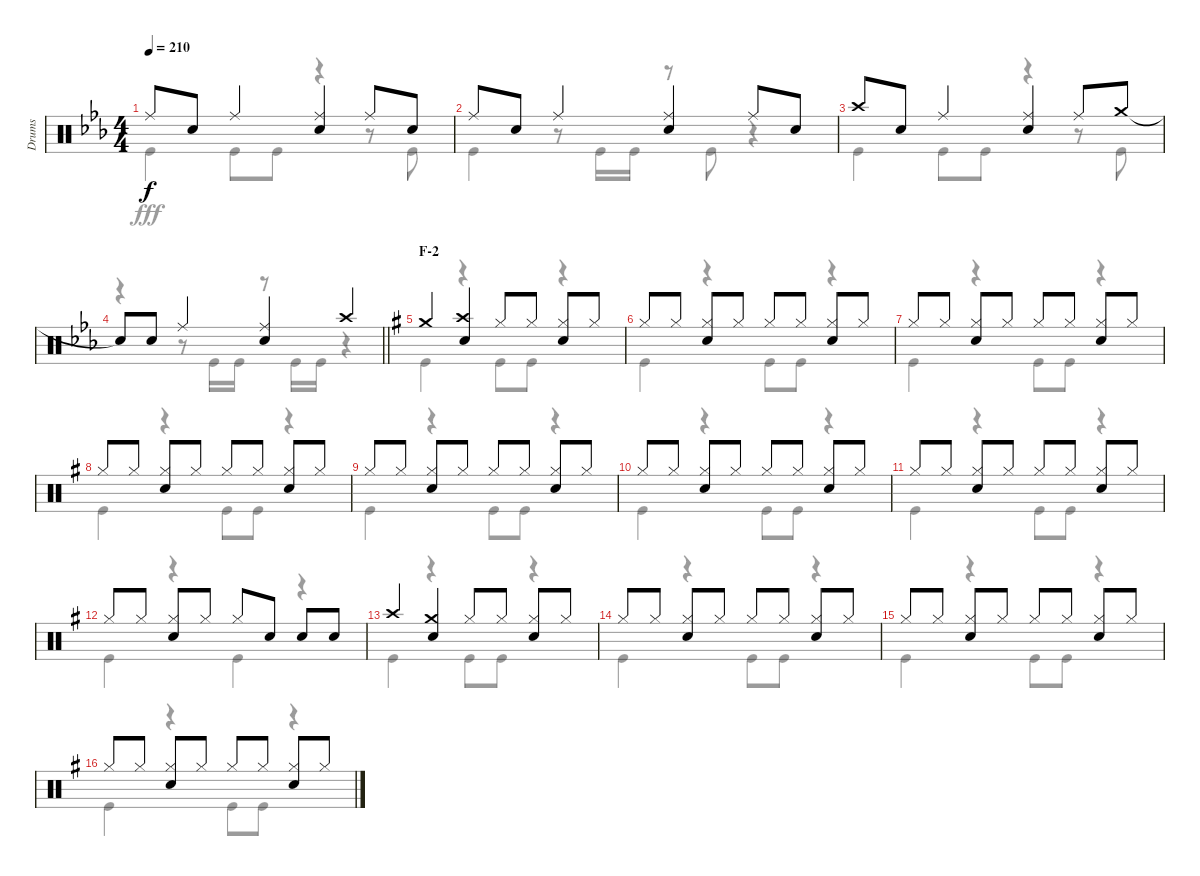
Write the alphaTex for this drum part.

\track ("Drums" "Drums") {instrument percussion}
\staff {score}
\articulation defaults
\voice
\ts (4 4)
\tempo 210
\clef neutral
\ks eb "Ride (middle)".8{dy f} "Snare (hit) 2".8 "Ride (middle)".4
("Ride (middle)" "Snare (hit) 2").4 "Ride (middle)".8 "Snare (hit) 2".8 |
"Ride (middle)".8 "Snare (hit) 2".8 "Ride (middle)".4 ("Ride (middle)" "Snare (hit) 2").4 "Ride (middle)".8 "Snare (hit) 2".8 |
"Crash high (hit)".8 "Snare (hit) 2".8 "Ride (middle)".4 ("Ride (middle)" "Snare (hit) 2").4 "Ride (middle)".8 "Crash medium (hit)".8 |
\barLineRight lightlight "Snare (hit)"{t}.8 "Snare (hit) 2".8 "Ride (middle)".4
("Ride (middle)" "Snare (hit) 2").4 "Crash high (hit)".4 |
\section ("" "F-2")
\ks g "Crash medium (hit)".4
("Crash high (hit)" "Snare (hit) 2").4 "Hi-Hat (closed)".8 "Hi-Hat (closed)".8 ("Hi-Hat (closed)" "Snare (hit) 2").8 "Hi-Hat (closed)".8 |
"Hi-Hat (closed)".8 "Hi-Hat (closed)".8 ("Hi-Hat (closed)" "Snare (hit) 2").8 "Hi-Hat (closed)".8 "Hi-Hat (closed)".8 "Hi-Hat (closed)".8 ("Hi-Hat (closed)" "Snare (hit) 2").8 "Hi-Hat (closed)".8 |
"Hi-Hat (closed)".8 "Hi-Hat (closed)".8 ("Hi-Hat (closed)" "Snare (hit) 2").8 "Hi-Hat (closed)".8 "Hi-Hat (closed)".8 "Hi-Hat (closed)".8 ("Hi-Hat (closed)" "Snare (hit) 2").8 "Hi-Hat (closed)".8 |
"Hi-Hat (closed)".8 "Hi-Hat (closed)".8 ("Hi-Hat (closed)" "Snare (hit) 2").8 "Hi-Hat (closed)".8 "Hi-Hat (closed)".8 "Hi-Hat (closed)".8 ("Hi-Hat (closed)" "Snare (hit) 2").8 "Hi-Hat (closed)".8 |
"Hi-Hat (closed)".8 "Hi-Hat (closed)".8 ("Hi-Hat (closed)" "Snare (hit) 2").8 "Hi-Hat (closed)".8 "Hi-Hat (closed)".8 "Hi-Hat (closed)".8 ("Hi-Hat (closed)" "Snare (hit) 2").8 "Hi-Hat (closed)".8 |
"Hi-Hat (closed)".8 "Hi-Hat (closed)".8 ("Hi-Hat (closed)" "Snare (hit) 2").8 "Hi-Hat (closed)".8 "Hi-Hat (closed)".8 "Hi-Hat (closed)".8 ("Hi-Hat (closed)" "Snare (hit) 2").8 "Hi-Hat (closed)".8 |
"Hi-Hat (closed)".8 "Hi-Hat (closed)".8 ("Hi-Hat (closed)" "Snare (hit) 2").8 "Hi-Hat (closed)".8 "Hi-Hat (closed)".8 "Hi-Hat (closed)".8 ("Hi-Hat (closed)" "Snare (hit) 2").8 "Hi-Hat (closed)".8 |
"Hi-Hat (closed)".8 "Hi-Hat (closed)".8 ("Hi-Hat (closed)" "Snare (hit) 2").8 "Hi-Hat (closed)".8 "Hi-Hat (closed)".8 "Snare (hit) 2".8 "Snare (hit) 2".8 "Snare (hit) 2".8 |
"Crash high (hit)".4 ("Crash medium (hit)" "Snare (hit) 2").4 "Hi-Hat (closed)".8 "Hi-Hat (closed)".8 ("Hi-Hat (closed)" "Snare (hit) 2").8 "Hi-Hat (closed)".8 |
"Hi-Hat (closed)".8 "Hi-Hat (closed)".8 ("Hi-Hat (closed)" "Snare (hit) 2").8 "Hi-Hat (closed)".8 "Hi-Hat (closed)".8 "Hi-Hat (closed)".8 ("Hi-Hat (closed)" "Snare (hit) 2").8 "Hi-Hat (closed)".8 |
"Hi-Hat (closed)".8 "Hi-Hat (closed)".8 ("Hi-Hat (closed)" "Snare (hit) 2").8 "Hi-Hat (closed)".8 "Hi-Hat (closed)".8 "Hi-Hat (closed)".8 ("Hi-Hat (closed)" "Snare (hit) 2").8 "Hi-Hat (closed)".8 |
"Hi-Hat (closed)".8 "Hi-Hat (closed)".8 ("Hi-Hat (closed)" "Snare (hit) 2").8 "Hi-Hat (closed)".8 "Hi-Hat (closed)".8 "Hi-Hat (closed)".8 ("Hi-Hat (closed)" "Snare (hit) 2").8 "Hi-Hat (closed)".8
\voice
\clef neutral
\ottava regular
\simile none
\ks eb "Kick (hit)".4{dy fff} "Kick (hit)".8 "Kick (hit)".8
r.4 r.8 "Kick (hit)".8 |
"Kick (hit)".4 r.8 "Kick (hit)".16 "Kick (hit)".16 r.8 "Kick (hit)".8 r.4 |
"Kick (hit)".4 "Kick (hit)".8 "Kick (hit)".8 r.4 r.8 "Kick (hit)".8 |
\barLineRight lightlight
r.4 r.8 "Kick (hit)".16 "Kick (hit)".16 r.8 "Kick (hit)".16 "Kick (hit)".16 r.4 |
\ks g "Kick (hit)".4
r.4 "Kick (hit)".8 "Kick (hit)".8 r.4 |
"Kick (hit)".4 r.4 "Kick (hit)".8 "Kick (hit)".8 r.4 |
"Kick (hit)".4 r.4 "Kick (hit)".8 "Kick (hit)".8 r.4 |
"Kick (hit)".4 r.4 "Kick (hit)".8 "Kick (hit)".8 r.4 |
"Kick (hit)".4 r.4 "Kick (hit)".8 "Kick (hit)".8 r.4 |
"Kick (hit)".4 r.4 "Kick (hit)".8 "Kick (hit)".8 r.4 |
"Kick (hit)".4 r.4 "Kick (hit)".8 "Kick (hit)".8 r.4 |
"Kick (hit)".4 r.4 "Kick (hit)".4 r.4 |
"Kick (hit)".4 r.4 "Kick (hit)".8 "Kick (hit)".8 r.4 |
"Kick (hit)".4 r.4 "Kick (hit)".8 "Kick (hit)".8 r.4 |
"Kick (hit)".4 r.4 "Kick (hit)".8 "Kick (hit)".8 r.4 |
"Kick (hit)".4 r.4 "Kick (hit)".8 "Kick (hit)".8 r.4
